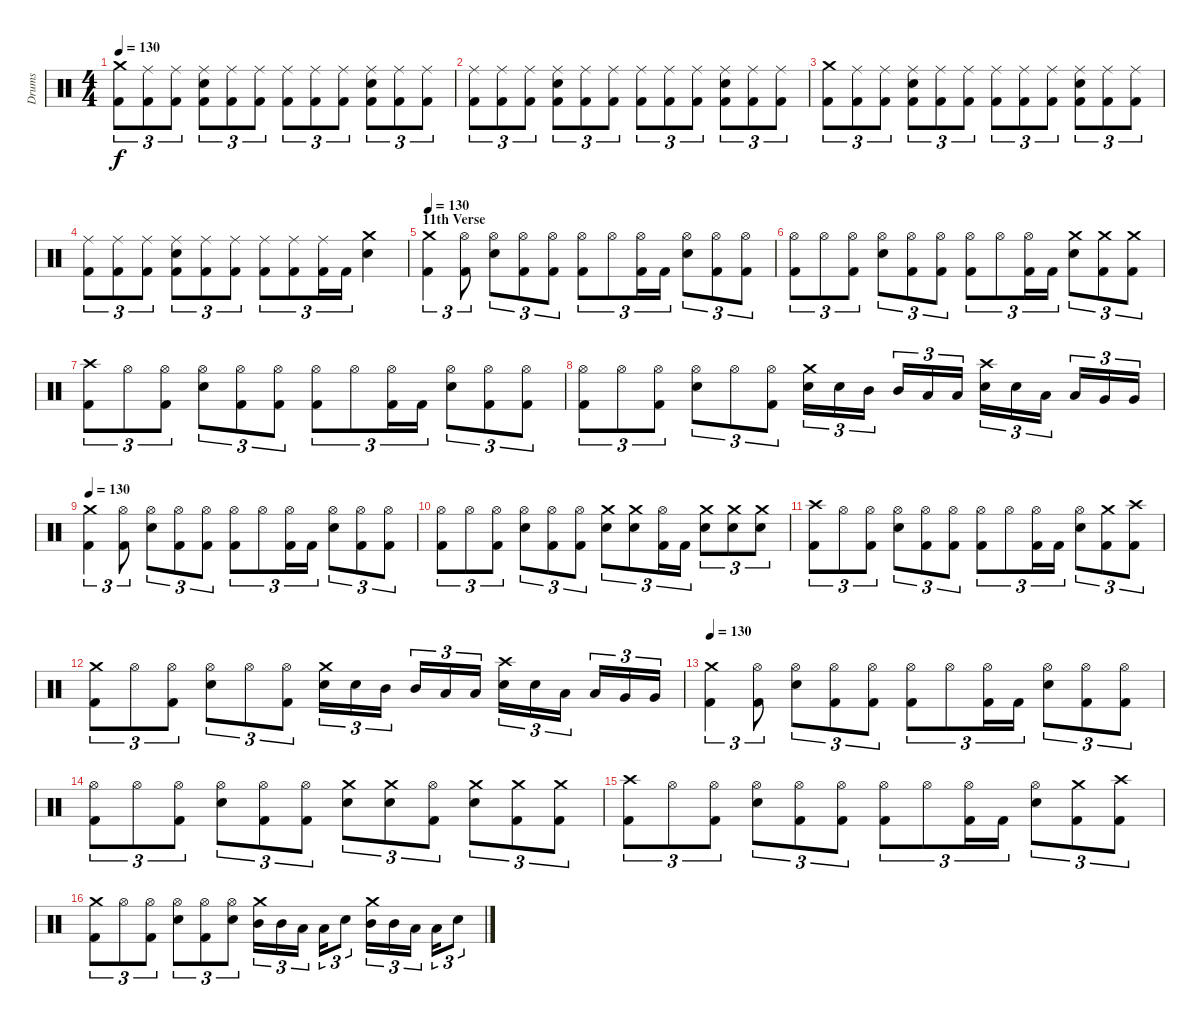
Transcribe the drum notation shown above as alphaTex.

\track ("Drums" "Drums") {instrument percussion}
\staff {score}
\articulation defaults
\ts (4 4)
\tempo 130
\clef neutral
\ks c
("Kick (hit) 2" "Crash medium (hit)").8{tu (3 2) dy f} ("Kick (hit) 2" "Ride (middle)").8{tu (3 2)} ("Kick (hit) 2" "Ride (middle)").8{tu (3 2)} ("Kick (hit) 2" "Electric Snare (hit)" "Ride (middle)").8{tu (3 2)} ("Kick (hit) 2" "Ride (middle)").8{tu (3 2)} ("Kick (hit) 2" "Ride (middle)").8{tu (3 2)} ("Kick (hit) 2" "Ride (middle)").8{tu (3 2)} ("Kick (hit) 2" "Ride (middle)").8{tu (3 2)} ("Kick (hit) 2" "Ride (middle)").8{tu (3 2)} ("Kick (hit) 2" "Electric Snare (hit)" "Ride (middle)").8{tu (3 2)} ("Kick (hit) 2" "Ride (middle)").8{tu (3 2)} ("Kick (hit) 2" "Ride (middle)").8{tu (3 2)} |
("Kick (hit) 2" "Ride (middle)").8{tu (3 2)} ("Kick (hit) 2" "Ride (middle)").8{tu (3 2)} ("Kick (hit) 2" "Ride (middle)").8{tu (3 2)} ("Kick (hit) 2" "Electric Snare (hit)" "Ride (middle)").8{tu (3 2)} ("Kick (hit) 2" "Ride (middle)").8{tu (3 2)} ("Kick (hit) 2" "Ride (middle)").8{tu (3 2)} ("Kick (hit) 2" "Ride (middle)").8{tu (3 2)} ("Kick (hit) 2" "Ride (middle)").8{tu (3 2)} ("Kick (hit) 2" "Ride (middle)").8{tu (3 2)} ("Kick (hit) 2" "Electric Snare (hit)" "Ride (middle)").8{tu (3 2)} ("Kick (hit) 2" "Ride (middle)").8{tu (3 2)} ("Kick (hit) 2" "Ride (middle)").8{tu (3 2)} |
("Kick (hit) 2" "Crash medium (hit)").8{tu (3 2)} ("Kick (hit) 2" "Ride (middle)").8{tu (3 2)} ("Kick (hit) 2" "Ride (middle)").8{tu (3 2)} ("Kick (hit) 2" "Electric Snare (hit)" "Ride (middle)").8{tu (3 2)} ("Kick (hit) 2" "Ride (middle)").8{tu (3 2)} ("Kick (hit) 2" "Ride (middle)").8{tu (3 2)} ("Kick (hit) 2" "Ride (middle)").8{tu (3 2)} ("Kick (hit) 2" "Ride (middle)").8{tu (3 2)} ("Kick (hit) 2" "Ride (middle)").8{tu (3 2)} ("Kick (hit) 2" "Electric Snare (hit)" "Ride (middle)").8{tu (3 2)} ("Kick (hit) 2" "Ride (middle)").8{tu (3 2)} ("Kick (hit) 2" "Ride (middle)").8{tu (3 2)} |
("Kick (hit) 2" "Ride (middle)").8{tu (3 2)} ("Kick (hit) 2" "Ride (middle)").8{tu (3 2)} ("Kick (hit) 2" "Ride (middle)").8{tu (3 2)} ("Kick (hit) 2" "Electric Snare (hit)" "Ride (middle)").8{tu (3 2)} ("Kick (hit) 2" "Ride (middle)").8{tu (3 2)} ("Kick (hit) 2" "Ride (middle)").8{tu (3 2)} ("Kick (hit) 2" "Ride (middle)").8{tu (3 2)} ("Kick (hit) 2" "Ride (middle)").8{tu (3 2)} ("Kick (hit) 2" "Ride (middle)").16{tu (3 2)} "Kick (hit) 2".16{tu (3 2)} ("Electric Snare (hit)" "Crash medium (hit)").4 |
\section ("" "11th Verse")
\tempo 130
("Kick (hit) 2" "Crash medium (hit)").4{tu (3 2)} ("Kick (hit) 2" "Hi-Hat (open)").8{tu (3 2)} ("Electric Snare (hit)" "Hi-Hat (open)").8{tu (3 2)} ("Kick (hit) 2" "Hi-Hat (open)").8{tu (3 2)} ("Kick (hit) 2" "Hi-Hat (open)").8{tu (3 2)} ("Kick (hit) 2" "Hi-Hat (open)").8{tu (3 2)} "Hi-Hat (open)".8{tu (3 2)} ("Kick (hit) 2" "Hi-Hat (open)").16{tu (3 2)} "Kick (hit) 2".16{tu (3 2)} ("Electric Snare (hit)" "Hi-Hat (open)").8{tu (3 2)} ("Kick (hit) 2" "Hi-Hat (open)").8{tu (3 2)} ("Kick (hit) 2" "Hi-Hat (open)").8{tu (3 2)} |
("Kick (hit) 2" "Hi-Hat (open)").8{tu (3 2)} "Hi-Hat (open)".8{tu (3 2)} ("Kick (hit) 2" "Hi-Hat (open)").8{tu (3 2)} ("Electric Snare (hit)" "Hi-Hat (open)").8{tu (3 2)} ("Kick (hit) 2" "Hi-Hat (open)").8{tu (3 2)} ("Kick (hit) 2" "Hi-Hat (open)").8{tu (3 2)} ("Kick (hit) 2" "Hi-Hat (open)").8{tu (3 2)} "Hi-Hat (open)".8{tu (3 2)} ("Kick (hit) 2" "Hi-Hat (open)").16{tu (3 2)} "Kick (hit) 2".16{tu (3 2)} ("Electric Snare (hit)" "Crash medium (hit)").8{tu (3 2)} ("Kick (hit) 2" "Crash medium (hit)").8{tu (3 2)} ("Kick (hit) 2" "Crash medium (hit)").8{tu (3 2)} |
("Kick (hit) 2" "Crash high (hit)").8{tu (3 2)} "Hi-Hat (open)".8{tu (3 2)} ("Kick (hit) 2" "Hi-Hat (open)").8{tu (3 2)} ("Electric Snare (hit)" "Hi-Hat (open)").8{tu (3 2)} ("Kick (hit) 2" "Hi-Hat (open)").8{tu (3 2)} ("Kick (hit) 2" "Hi-Hat (open)").8{tu (3 2)} ("Kick (hit) 2" "Hi-Hat (open)").8{tu (3 2)} "Hi-Hat (open)".8{tu (3 2)} ("Kick (hit) 2" "Hi-Hat (open)").16{tu (3 2)} "Kick (hit) 2".16{tu (3 2)} ("Electric Snare (hit)" "Hi-Hat (open)").8{tu (3 2)} ("Kick (hit) 2" "Hi-Hat (open)").8{tu (3 2)} ("Kick (hit) 2" "Hi-Hat (open)").8{tu (3 2)} |
("Kick (hit) 2" "Hi-Hat (open)").8{tu (3 2)} "Hi-Hat (open)".8{tu (3 2)} ("Kick (hit) 2" "Hi-Hat (open)").8{tu (3 2)} ("Electric Snare (hit)" "Hi-Hat (open)").8{tu (3 2)} "Hi-Hat (open)".8{tu (3 2)} ("Kick (hit) 2" "Hi-Hat (open)").8{tu (3 2)} ("Electric Snare (hit)" "Crash medium (hit)").16{tu (3 2)} "Electric Snare (hit)".16{tu (3 2)} "Mid Tom (hit)".16{tu (3 2)} "Mid Tom (hit)".16{tu (3 2)} "Low Tom (hit)".16{tu (3 2)} "Low Tom (hit)".16{tu (3 2)} ("Electric Snare (hit)" "Crash high (hit)").16{tu (3 2)} "Electric Snare (hit)".16{tu (3 2)} "Low Tom (hit)".16{tu (3 2)} "Low Tom (hit)".16{tu (3 2)} "Very Low Tom (hit)".16{tu (3 2)} "Very Low Tom (hit)".16{tu (3 2)} |
\tempo 130
("Kick (hit) 2" "Crash medium (hit)").4{tu (3 2)} ("Kick (hit) 2" "Hi-Hat (open)").8{tu (3 2)} ("Electric Snare (hit)" "Hi-Hat (open)").8{tu (3 2)} ("Kick (hit) 2" "Hi-Hat (open)").8{tu (3 2)} ("Kick (hit) 2" "Hi-Hat (open)").8{tu (3 2)} ("Kick (hit) 2" "Hi-Hat (open)").8{tu (3 2)} "Hi-Hat (open)".8{tu (3 2)} ("Kick (hit) 2" "Hi-Hat (open)").16{tu (3 2)} "Kick (hit) 2".16{tu (3 2)} ("Electric Snare (hit)" "Hi-Hat (open)").8{tu (3 2)} ("Kick (hit) 2" "Hi-Hat (open)").8{tu (3 2)} ("Kick (hit) 2" "Hi-Hat (open)").8{tu (3 2)} |
("Kick (hit) 2" "Hi-Hat (open)").8{tu (3 2)} "Hi-Hat (open)".8{tu (3 2)} ("Kick (hit) 2" "Hi-Hat (open)").8{tu (3 2)} ("Electric Snare (hit)" "Hi-Hat (open)").8{tu (3 2)} ("Kick (hit) 2" "Hi-Hat (open)").8{tu (3 2)} ("Kick (hit) 2" "Hi-Hat (open)").8{tu (3 2)} ("Electric Snare (hit)" "Crash medium (hit)").8{tu (3 2)} ("Electric Snare (hit)" "Crash medium (hit)").8{tu (3 2)} ("Kick (hit) 2" "Hi-Hat (open)").16{tu (3 2)} "Kick (hit) 2".16{tu (3 2)} ("Electric Snare (hit)" "Crash medium (hit)").8{tu (3 2)} ("Electric Snare (hit)" "Crash medium (hit)").8{tu (3 2)} ("Electric Snare (hit)" "Crash medium (hit)").8{tu (3 2)} |
("Kick (hit) 2" "Crash high (hit)").8{tu (3 2)} "Hi-Hat (open)".8{tu (3 2)} ("Kick (hit) 2" "Hi-Hat (open)").8{tu (3 2)} ("Electric Snare (hit)" "Hi-Hat (open)").8{tu (3 2)} ("Kick (hit) 2" "Hi-Hat (open)").8{tu (3 2)} ("Kick (hit) 2" "Hi-Hat (open)").8{tu (3 2)} ("Kick (hit) 2" "Hi-Hat (open)").8{tu (3 2)} "Hi-Hat (open)".8{tu (3 2)} ("Kick (hit) 2" "Hi-Hat (open)").16{tu (3 2)} "Kick (hit) 2".16{tu (3 2)} ("Electric Snare (hit)" "Hi-Hat (open)").8{tu (3 2)} ("Kick (hit) 2" "Crash medium (hit)").8{tu (3 2)} ("Kick (hit) 2" "Crash high (hit)").8{tu (3 2)} |
("Kick (hit) 2" "Crash medium (hit)").8{tu (3 2)} "Hi-Hat (open)".8{tu (3 2)} ("Kick (hit) 2" "Hi-Hat (open)").8{tu (3 2)} ("Electric Snare (hit)" "Hi-Hat (open)").8{tu (3 2)} "Hi-Hat (open)".8{tu (3 2)} ("Kick (hit) 2" "Hi-Hat (open)").8{tu (3 2)} ("Electric Snare (hit)" "Crash medium (hit)").16{tu (3 2)} "Electric Snare (hit)".16{tu (3 2)} "Mid Tom (hit)".16{tu (3 2)} "Mid Tom (hit)".16{tu (3 2)} "Low Tom (hit)".16{tu (3 2)} "Low Tom (hit)".16{tu (3 2)} ("Electric Snare (hit)" "Crash high (hit)").16{tu (3 2)} "Electric Snare (hit)".16{tu (3 2)} "Low Tom (hit)".16{tu (3 2)} "Low Tom (hit)".16{tu (3 2)} "Very Low Tom (hit)".16{tu (3 2)} "Very Low Tom (hit)".16{tu (3 2)} |
\tempo 130
("Kick (hit) 2" "Crash medium (hit)").4{tu (3 2)} ("Kick (hit) 2" "Hi-Hat (open)").8{tu (3 2)} ("Electric Snare (hit)" "Hi-Hat (open)").8{tu (3 2)} ("Kick (hit) 2" "Hi-Hat (open)").8{tu (3 2)} ("Kick (hit) 2" "Hi-Hat (open)").8{tu (3 2)} ("Kick (hit) 2" "Hi-Hat (open)").8{tu (3 2)} "Hi-Hat (open)".8{tu (3 2)} ("Kick (hit) 2" "Hi-Hat (open)").16{tu (3 2)} "Kick (hit) 2".16{tu (3 2)} ("Electric Snare (hit)" "Hi-Hat (open)").8{tu (3 2)} ("Kick (hit) 2" "Hi-Hat (open)").8{tu (3 2)} ("Kick (hit) 2" "Hi-Hat (open)").8{tu (3 2)} |
("Kick (hit) 2" "Hi-Hat (open)").8{tu (3 2)} "Hi-Hat (open)".8{tu (3 2)} ("Kick (hit) 2" "Hi-Hat (open)").8{tu (3 2)} ("Electric Snare (hit)" "Hi-Hat (open)").8{tu (3 2)} ("Kick (hit) 2" "Hi-Hat (open)").8{tu (3 2)} ("Kick (hit) 2" "Hi-Hat (open)").8{tu (3 2)} ("Electric Snare (hit)" "Crash medium (hit)").8{tu (3 2)} ("Electric Snare (hit)" "Crash medium (hit)").8{tu (3 2)} ("Kick (hit) 2" "Hi-Hat (open)").8{tu (3 2)} ("Electric Snare (hit)" "Crash medium (hit)").8{tu (3 2)} ("Kick (hit) 2" "Crash medium (hit)").8{tu (3 2)} ("Kick (hit) 2" "Crash medium (hit)").8{tu (3 2)} |
("Kick (hit) 2" "Crash high (hit)").8{tu (3 2)} "Hi-Hat (open)".8{tu (3 2)} ("Kick (hit) 2" "Hi-Hat (open)").8{tu (3 2)} ("Electric Snare (hit)" "Hi-Hat (open)").8{tu (3 2)} ("Kick (hit) 2" "Hi-Hat (open)").8{tu (3 2)} ("Kick (hit) 2" "Hi-Hat (open)").8{tu (3 2)} ("Kick (hit) 2" "Hi-Hat (open)").8{tu (3 2)} "Hi-Hat (open)".8{tu (3 2)} ("Kick (hit) 2" "Hi-Hat (open)").16{tu (3 2)} "Kick (hit) 2".16{tu (3 2)} ("Electric Snare (hit)" "Hi-Hat (open)").8{tu (3 2)} ("Kick (hit) 2" "Crash medium (hit)").8{tu (3 2)} ("Kick (hit) 2" "Crash high (hit)").8{tu (3 2)} |
("Kick (hit) 2" "Crash medium (hit)").8{tu (3 2)} "Hi-Hat (open)".8{tu (3 2)} ("Kick (hit) 2" "Hi-Hat (open)").8{tu (3 2)} ("Electric Snare (hit)" "Hi-Hat (open)").8{tu (3 2)} ("Kick (hit) 2" "Hi-Hat (open)").8{tu (3 2)} ("Electric Snare (hit)" "Hi-Hat (open)").8{tu (3 2)} ("Mid Tom (hit)" "Crash medium (hit)").16{tu (3 2)} "Mid Tom (hit)".16{tu (3 2)} "Low Tom (hit)".16{tu (3 2)} "Low Tom (hit)".16{tu (3 2)} "Electric Snare (hit)".8{tu (3 2)} ("Mid Tom (hit)" "Crash medium (hit)").16{tu (3 2)} "Mid Tom (hit)".16{tu (3 2)} "Low Tom (hit)".16{tu (3 2)} "Low Tom (hit)".16{tu (3 2)} "Electric Snare (hit)".8{tu (3 2)}
